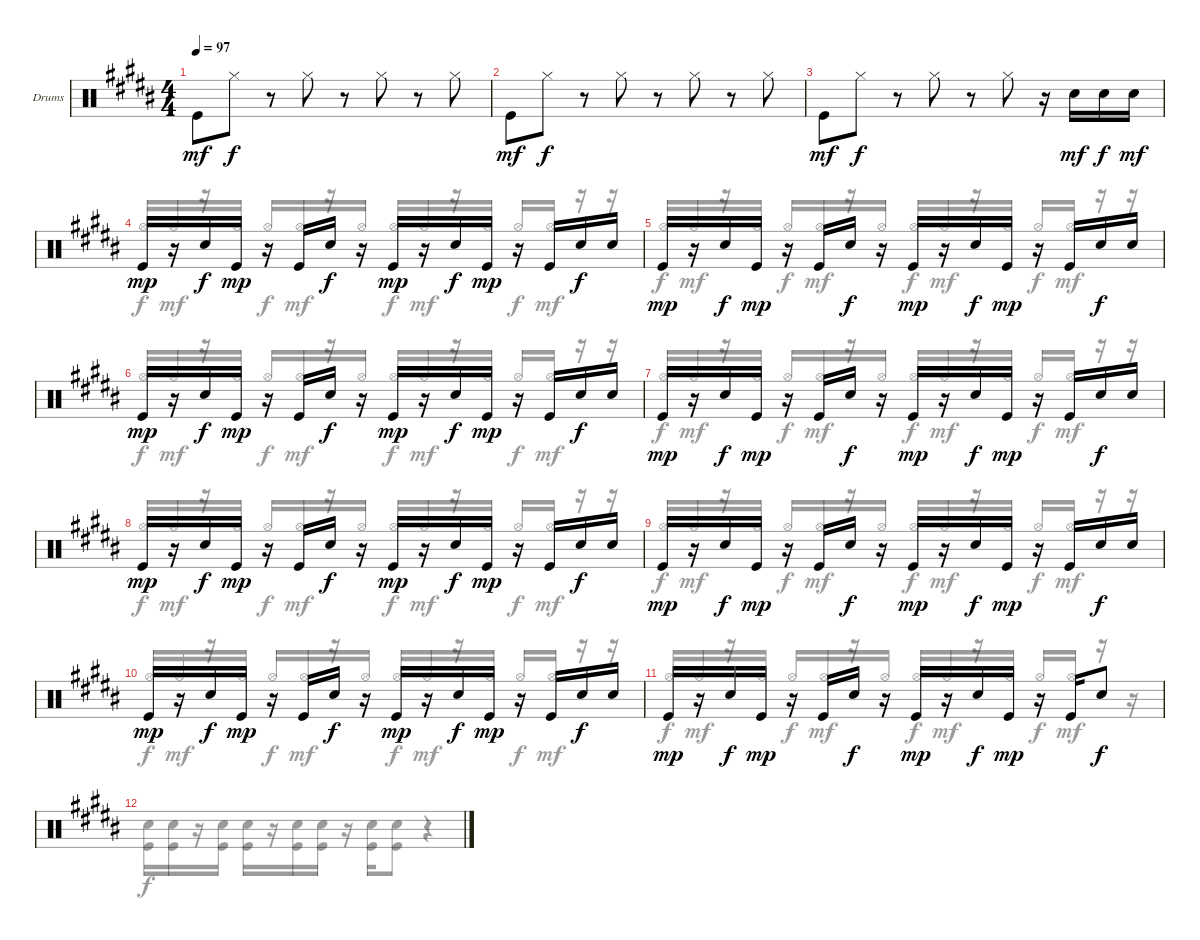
\bracketExtendMode groupsimilarinstruments
\firstSystemTrackNameOrientation horizontal
\otherSystemsTrackNameOrientation horizontal
\track ("Fabrizio Moretti" "Drums") {instrument percussion}
\staff {score}
\articulation defaults
\voice
\ts (4 4)
\tempo 97
\clef neutral
\ks b "Kick (hit)".8{dy mf} "Hi-Hat (closed)".8{dy f}
r.8 "Hi-Hat (closed)".8 r.8 "Hi-Hat (closed)".8 r.8 "Hi-Hat (closed)".8 |
"Kick (hit)".8{dy mf} "Hi-Hat (closed)".8{dy f} r.8 "Hi-Hat (closed)".8 r.8 "Hi-Hat (closed)".8 r.8 "Hi-Hat (closed)".8 |
"Kick (hit)".8{dy mf} "Hi-Hat (closed)".8{dy f} r.8 "Hi-Hat (closed)".8 r.8 "Hi-Hat (closed)".8 r.16 "Snare (hit) 2".16{dy mf} "Snare (hit) 2".16{dy f} "Snare (hit) 2".16{dy mf} |
"Kick (hit)".16{dy mp} r.16 "Snare (hit) 2".16{dy f} "Kick (hit)".16{dy mp} r.16 "Kick (hit)".16 "Snare (hit) 2".16{dy f} r.16 "Kick (hit)".16{dy mp} r.16 "Snare (hit) 2".16{dy f} "Kick (hit)".16{dy mp} r.16 "Kick (hit)".16 "Snare (hit) 2".16{dy f} "Snare (hit) 2".16 |
"Kick (hit)".16{dy mp} r.16 "Snare (hit) 2".16{dy f} "Kick (hit)".16{dy mp} r.16 "Kick (hit)".16 "Snare (hit) 2".16{dy f} r.16 "Kick (hit)".16{dy mp} r.16 "Snare (hit) 2".16{dy f} "Kick (hit)".16{dy mp} r.16 "Kick (hit)".16 "Snare (hit) 2".16{dy f} "Snare (hit) 2".16 |
"Kick (hit)".16{dy mp} r.16 "Snare (hit) 2".16{dy f} "Kick (hit)".16{dy mp} r.16 "Kick (hit)".16 "Snare (hit) 2".16{dy f} r.16 "Kick (hit)".16{dy mp} r.16 "Snare (hit) 2".16{dy f} "Kick (hit)".16{dy mp} r.16 "Kick (hit)".16 "Snare (hit) 2".16{dy f} "Snare (hit) 2".16 |
"Kick (hit)".16{dy mp} r.16 "Snare (hit) 2".16{dy f} "Kick (hit)".16{dy mp} r.16 "Kick (hit)".16 "Snare (hit) 2".16{dy f} r.16 "Kick (hit)".16{dy mp} r.16 "Snare (hit) 2".16{dy f} "Kick (hit)".16{dy mp} r.16 "Kick (hit)".16 "Snare (hit) 2".16{dy f} "Snare (hit) 2".16 |
"Kick (hit)".16{dy mp} r.16 "Snare (hit) 2".16{dy f} "Kick (hit)".16{dy mp} r.16 "Kick (hit)".16 "Snare (hit) 2".16{dy f} r.16 "Kick (hit)".16{dy mp} r.16 "Snare (hit) 2".16{dy f} "Kick (hit)".16{dy mp} r.16 "Kick (hit)".16 "Snare (hit) 2".16{dy f} "Snare (hit) 2".16 |
"Kick (hit)".16{dy mp} r.16 "Snare (hit) 2".16{dy f} "Kick (hit)".16{dy mp} r.16 "Kick (hit)".16 "Snare (hit) 2".16{dy f} r.16 "Kick (hit)".16{dy mp} r.16 "Snare (hit) 2".16{dy f} "Kick (hit)".16{dy mp} r.16 "Kick (hit)".16 "Snare (hit) 2".16{dy f} "Snare (hit) 2".16 |
"Kick (hit)".16{dy mp} r.16 "Snare (hit) 2".16{dy f} "Kick (hit)".16{dy mp} r.16 "Kick (hit)".16 "Snare (hit) 2".16{dy f} r.16 "Kick (hit)".16{dy mp} r.16 "Snare (hit) 2".16{dy f} "Kick (hit)".16{dy mp} r.16 "Kick (hit)".16 "Snare (hit) 2".16{dy f} "Snare (hit) 2".16 |
"Kick (hit)".16{dy mp} r.16 "Snare (hit) 2".16{dy f} "Kick (hit)".16{dy mp} r.16 "Kick (hit)".16 "Snare (hit) 2".16{dy f} r.16 "Kick (hit)".16{dy mp} r.16 "Snare (hit) 2".16{dy f} "Kick (hit)".16{dy mp} r.16 "Kick (hit)".16 "Snare (hit) 2".8{dy f} |
\voice
\clef neutral
\ottava regular
\simile none
\ks b
|
|
|
"Hi-Hat (open)".16{dy f beam invert} "Hi-Hat (open)".16{dy mf} r.16 "Hi-Hat (open)".16 "Hi-Hat (open)".16{dy f beam invert} "Hi-Hat (open)".16{dy mf} r.16 "Hi-Hat (open)".16 "Hi-Hat (open)".16{dy f beam invert} "Hi-Hat (open)".16{dy mf} r.16 "Hi-Hat (open)".16 "Hi-Hat (open)".16{dy f beam invert} "Hi-Hat (open)".16{dy mf} r.16 r.16 |
"Hi-Hat (open)".16{dy f beam invert} "Hi-Hat (open)".16{dy mf} r.16 "Hi-Hat (open)".16 "Hi-Hat (open)".16{dy f beam invert} "Hi-Hat (open)".16{dy mf} r.16 "Hi-Hat (open)".16 "Hi-Hat (open)".16{dy f beam invert} "Hi-Hat (open)".16{dy mf} r.16 "Hi-Hat (open)".16 "Hi-Hat (open)".16{dy f beam invert} "Hi-Hat (open)".16{dy mf} r.16 r.16 |
"Hi-Hat (open)".16{dy f beam invert} "Hi-Hat (open)".16{dy mf} r.16 "Hi-Hat (open)".16 "Hi-Hat (open)".16{dy f beam invert} "Hi-Hat (open)".16{dy mf} r.16 "Hi-Hat (open)".16 "Hi-Hat (open)".16{dy f beam invert} "Hi-Hat (open)".16{dy mf} r.16 "Hi-Hat (open)".16 "Hi-Hat (open)".16{dy f beam invert} "Hi-Hat (open)".16{dy mf} r.16 r.16 |
"Hi-Hat (open)".16{dy f beam invert} "Hi-Hat (open)".16{dy mf} r.16 "Hi-Hat (open)".16 "Hi-Hat (open)".16{dy f beam invert} "Hi-Hat (open)".16{dy mf} r.16 "Hi-Hat (open)".16 "Hi-Hat (open)".16{dy f beam invert} "Hi-Hat (open)".16{dy mf} r.16 "Hi-Hat (open)".16 "Hi-Hat (open)".16{dy f beam invert} "Hi-Hat (open)".16{dy mf} r.16 r.16 |
"Hi-Hat (open)".16{dy f beam invert} "Hi-Hat (open)".16{dy mf} r.16 "Hi-Hat (open)".16 "Hi-Hat (open)".16{dy f beam invert} "Hi-Hat (open)".16{dy mf} r.16 "Hi-Hat (open)".16 "Hi-Hat (open)".16{dy f beam invert} "Hi-Hat (open)".16{dy mf} r.16 "Hi-Hat (open)".16 "Hi-Hat (open)".16{dy f beam invert} "Hi-Hat (open)".16{dy mf} r.16 r.16 |
"Hi-Hat (open)".16{dy f beam invert} "Hi-Hat (open)".16{dy mf} r.16 "Hi-Hat (open)".16 "Hi-Hat (open)".16{dy f beam invert} "Hi-Hat (open)".16{dy mf} r.16 "Hi-Hat (open)".16 "Hi-Hat (open)".16{dy f beam invert} "Hi-Hat (open)".16{dy mf} r.16 "Hi-Hat (open)".16 "Hi-Hat (open)".16{dy f beam invert} "Hi-Hat (open)".16{dy mf} r.16 r.16 |
"Hi-Hat (open)".16{dy f beam invert} "Hi-Hat (open)".16{dy mf} r.16 "Hi-Hat (open)".16 "Hi-Hat (open)".16{dy f beam invert} "Hi-Hat (open)".16{dy mf} r.16 "Hi-Hat (open)".16 "Hi-Hat (open)".16{dy f beam invert} "Hi-Hat (open)".16{dy mf} r.16 "Hi-Hat (open)".16 "Hi-Hat (open)".16{dy f beam invert} "Hi-Hat (open)".16{dy mf} r.16 r.16 |
"Hi-Hat (open)".16{dy f beam invert} "Hi-Hat (open)".16{dy mf} r.16 "Hi-Hat (open)".16 "Hi-Hat (open)".16{dy f beam invert} "Hi-Hat (open)".16{dy mf} r.16 "Hi-Hat (open)".16 "Hi-Hat (open)".16{dy f beam invert} "Hi-Hat (open)".16{dy mf} r.16 "Hi-Hat (open)".16 "Hi-Hat (open)".16{dy f beam invert} "Hi-Hat (open)".16{dy mf} r.16 r.16 |
("Kick (hit)" "Snare (hit) 2").16{dy f} ("Kick (hit)" "Snare (hit) 2").16 r.16 ("Kick (hit)" "Snare (hit) 2").16 ("Kick (hit)" "Snare (hit) 2").16 r.16 ("Kick (hit)" "Snare (hit) 2").16 ("Kick (hit)" "Snare (hit) 2").16 r.16 ("Kick (hit)" "Snare (hit) 2").16 ("Kick (hit)" "Snare (hit) 2").8 r.4
